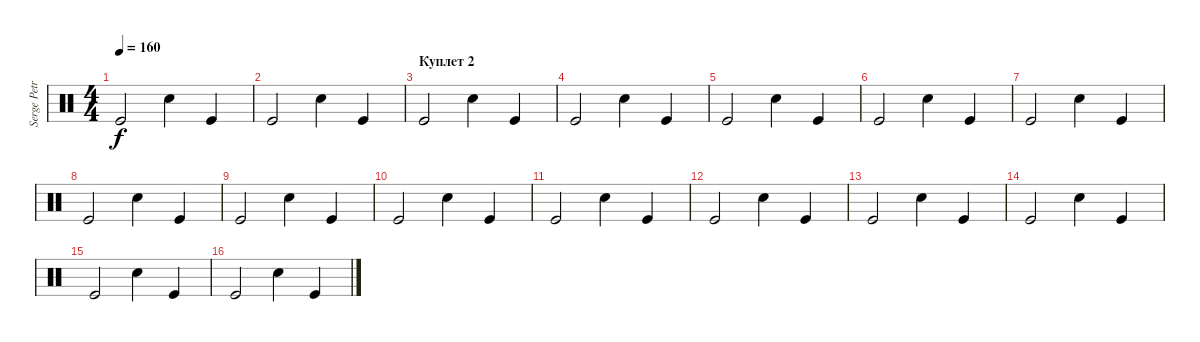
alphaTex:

\track ("Serge Petrone" "Serge Petr") {instrument percussion}
\staff {score}
\articulation defaults
\ts (4 4)
\tempo 160
\clef neutral
\ks c "Kick (hit)".2{dy f} "Snare (hit) 2".4 "Kick (hit)".4
|
"Kick (hit)".2 "Snare (hit) 2".4 "Kick (hit)".4 |
\section ("" "Куплет 2")
"Kick (hit)".2 "Snare (hit) 2".4 "Kick (hit)".4 |
"Kick (hit)".2 "Snare (hit) 2".4 "Kick (hit)".4 |
"Kick (hit)".2 "Snare (hit) 2".4 "Kick (hit)".4 |
"Kick (hit)".2 "Snare (hit) 2".4 "Kick (hit)".4 |
"Kick (hit)".2 "Snare (hit) 2".4 "Kick (hit)".4 |
"Kick (hit)".2 "Snare (hit) 2".4 "Kick (hit)".4 |
"Kick (hit)".2 "Snare (hit) 2".4 "Kick (hit)".4 |
"Kick (hit)".2 "Snare (hit) 2".4 "Kick (hit)".4 |
"Kick (hit)".2 "Snare (hit) 2".4 "Kick (hit)".4 |
"Kick (hit)".2 "Snare (hit) 2".4 "Kick (hit)".4 |
"Kick (hit)".2 "Snare (hit) 2".4 "Kick (hit)".4 |
"Kick (hit)".2 "Snare (hit) 2".4 "Kick (hit)".4 |
"Kick (hit)".2 "Snare (hit) 2".4 "Kick (hit)".4 |
"Kick (hit)".2 "Snare (hit) 2".4 "Kick (hit)".4
